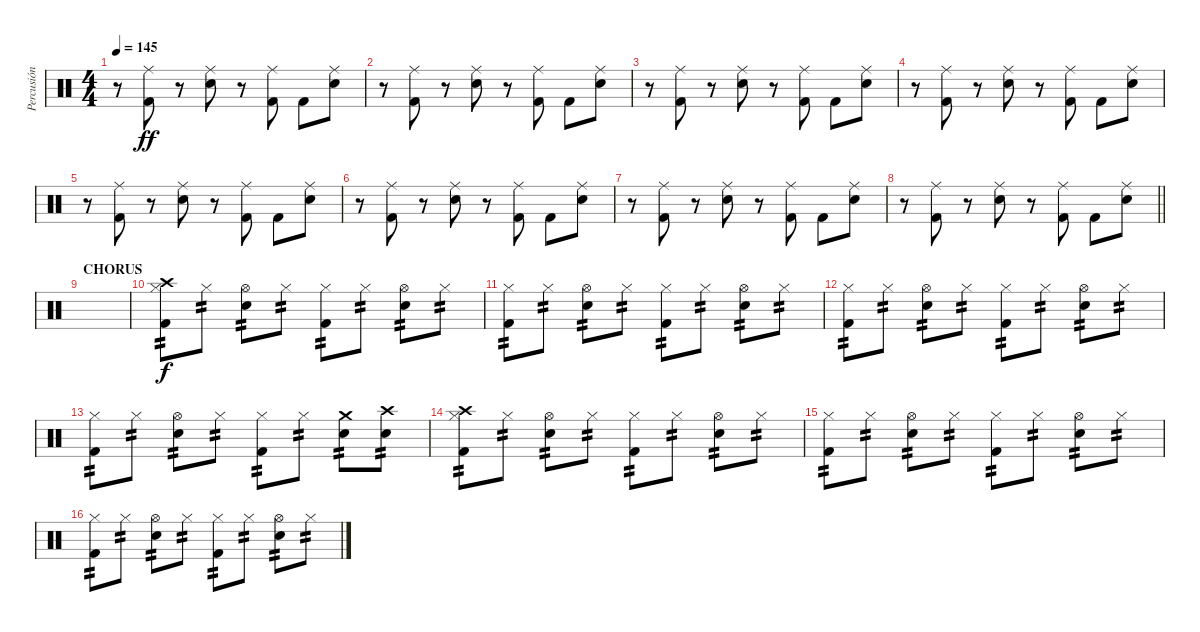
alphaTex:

\track ("Percusión" "Percusión") {instrument percussion}
\staff {score}
\articulation defaults
\ts (4 4)
\tempo 145
\clef neutral
\ks c
r.8{dy ff} ("Ride (middle)" "Kick (hit) 2").8 r.8 ("Ride (middle)" "Snare (hit) 2").8 r.8 ("Ride (middle)" "Kick (hit) 2").8 "Kick (hit) 2".8 ("Ride (middle)" "Snare (hit) 2").8 |
r.8 ("Ride (middle)" "Kick (hit) 2").8 r.8 ("Ride (middle)" "Snare (hit) 2").8 r.8 ("Ride (middle)" "Kick (hit) 2").8 "Kick (hit) 2".8 ("Ride (middle)" "Snare (hit) 2").8 |
r.8 ("Ride (middle)" "Kick (hit) 2").8 r.8 ("Ride (middle)" "Snare (hit) 2").8 r.8 ("Ride (middle)" "Kick (hit) 2").8 "Kick (hit) 2".8 ("Ride (middle)" "Snare (hit) 2").8 |
r.8 ("Ride (middle)" "Kick (hit) 2").8 r.8 ("Ride (middle)" "Snare (hit) 2").8 r.8 ("Ride (middle)" "Kick (hit) 2").8 "Kick (hit) 2".8 ("Ride (middle)" "Snare (hit) 2").8 |
r.8 ("Ride (middle)" "Kick (hit) 2").8 r.8 ("Ride (middle)" "Snare (hit) 2").8 r.8 ("Ride (middle)" "Kick (hit) 2").8 "Kick (hit) 2".8 ("Ride (middle)" "Snare (hit) 2").8 |
r.8 ("Ride (middle)" "Kick (hit) 2").8 r.8 ("Ride (middle)" "Snare (hit) 2").8 r.8 ("Ride (middle)" "Kick (hit) 2").8 "Kick (hit) 2".8 ("Ride (middle)" "Snare (hit) 2").8 |
r.8 ("Ride (middle)" "Kick (hit) 2").8 r.8 ("Ride (middle)" "Snare (hit) 2").8 r.8 ("Ride (middle)" "Kick (hit) 2").8 "Kick (hit) 2".8 ("Ride (middle)" "Snare (hit) 2").8 |
\barLineRight lightlight
r.8 ("Ride (middle)" "Kick (hit) 2").8 r.8 ("Ride (middle)" "Snare (hit) 2").8 r.8 ("Ride (middle)" "Kick (hit) 2").8 "Kick (hit) 2".8 ("Ride (middle)" "Snare (hit) 2").8 |
\section ("" "CHORUS")
|
("Hi-Hat (closed)" "Kick (hit) 2" "Crash high (hit)").8{tp 2 dy f} "Hi-Hat (closed)".8{tp 2} ("Hi-Hat (open)" "Snare (hit) 2").8{tp 2} "Hi-Hat (closed)".8{tp 2} ("Hi-Hat (closed)" "Kick (hit) 2").8{tp 2} "Hi-Hat (closed)".8{tp 2} ("Hi-Hat (open)" "Snare (hit) 2").8{tp 2} "Hi-Hat (closed)".8{tp 2} |
("Hi-Hat (closed)" "Kick (hit) 2").8{tp 2} "Hi-Hat (closed)".8{tp 2} ("Hi-Hat (open)" "Snare (hit) 2").8{tp 2} "Hi-Hat (closed)".8{tp 2} ("Hi-Hat (closed)" "Kick (hit) 2").8{tp 2} "Hi-Hat (closed)".8{tp 2} ("Hi-Hat (open)" "Snare (hit) 2").8{tp 2} "Hi-Hat (closed)".8{tp 2} |
("Hi-Hat (closed)" "Kick (hit) 2").8{tp 2} "Hi-Hat (closed)".8{tp 2} ("Hi-Hat (open)" "Snare (hit) 2").8{tp 2} "Hi-Hat (closed)".8{tp 2} ("Hi-Hat (closed)" "Kick (hit) 2").8{tp 2} "Hi-Hat (closed)".8{tp 2} ("Hi-Hat (open)" "Snare (hit) 2").8{tp 2} "Hi-Hat (closed)".8{tp 2} |
("Hi-Hat (closed)" "Kick (hit) 2").8{tp 2} "Hi-Hat (closed)".8{tp 2} ("Hi-Hat (open)" "Snare (hit) 2").8{tp 2} "Hi-Hat (closed)".8{tp 2} ("Hi-Hat (closed)" "Kick (hit) 2").8{tp 2} "Hi-Hat (closed)".8{tp 2} ("Crash medium (hit)" "Snare (hit) 2").8{tp 2} ("Crash high (hit)" "Snare (hit) 2").8{tp 2} |
("Hi-Hat (closed)" "Kick (hit) 2" "Crash high (hit)").8{tp 2} "Hi-Hat (closed)".8{tp 2} ("Hi-Hat (open)" "Snare (hit) 2").8{tp 2} "Hi-Hat (closed)".8{tp 2} ("Hi-Hat (closed)" "Kick (hit) 2").8{tp 2} "Hi-Hat (closed)".8{tp 2} ("Hi-Hat (open)" "Snare (hit) 2").8{tp 2} "Hi-Hat (closed)".8{tp 2} |
("Hi-Hat (closed)" "Kick (hit) 2").8{tp 2} "Hi-Hat (closed)".8{tp 2} ("Hi-Hat (open)" "Snare (hit) 2").8{tp 2} "Hi-Hat (closed)".8{tp 2} ("Hi-Hat (closed)" "Kick (hit) 2").8{tp 2} "Hi-Hat (closed)".8{tp 2} ("Hi-Hat (open)" "Snare (hit) 2").8{tp 2} "Hi-Hat (closed)".8{tp 2} |
("Hi-Hat (closed)" "Kick (hit) 2").8{tp 2} "Hi-Hat (closed)".8{tp 2} ("Hi-Hat (open)" "Snare (hit) 2").8{tp 2} "Hi-Hat (closed)".8{tp 2} ("Hi-Hat (closed)" "Kick (hit) 2").8{tp 2} "Hi-Hat (closed)".8{tp 2} ("Hi-Hat (open)" "Snare (hit) 2").8{tp 2} "Hi-Hat (closed)".8{tp 2}
